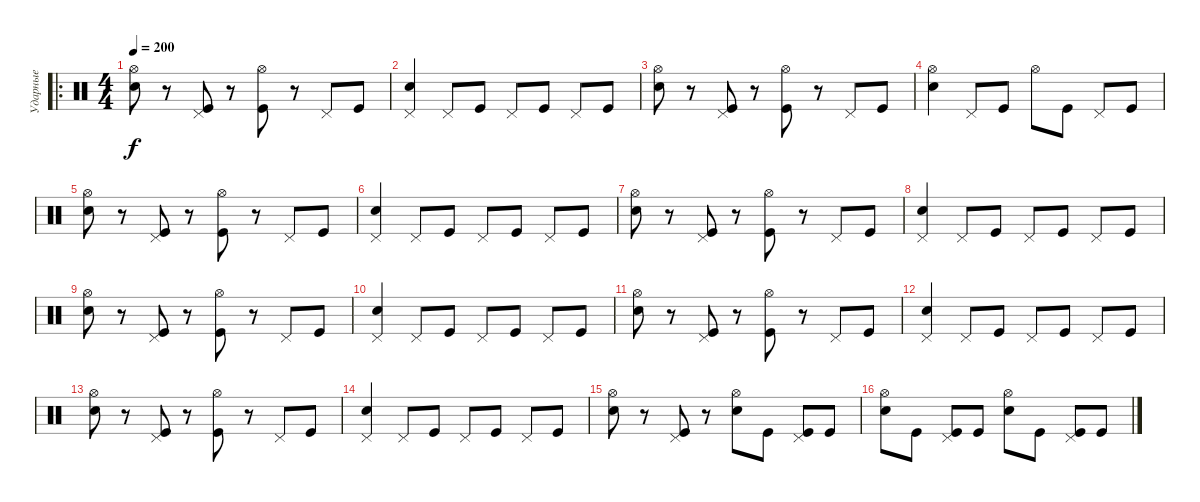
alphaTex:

\track ("Ударные" "Ударные") {instrument percussion}
\staff {score}
\articulation defaults
\ro
\ts (4 4)
\tempo 200
\clef neutral
\ks c
("Hi-Hat (open)" "Electric Snare (hit)").8{dy f} r.8 ("Pedal Hi-Hat (hit)" "Kick (hit)").8 r.8 ("Hi-Hat (open)" "Kick (hit)").8 r.8 "Pedal Hi-Hat (hit)".8 "Kick (hit)".8 |
("Pedal Hi-Hat (hit)" "Electric Snare (hit)").4 "Pedal Hi-Hat (hit)".8 "Kick (hit)".8 "Pedal Hi-Hat (hit)".8 "Kick (hit)".8 "Pedal Hi-Hat (hit)".8 "Kick (hit)".8 |
("Hi-Hat (open)" "Electric Snare (hit)").8 r.8 ("Pedal Hi-Hat (hit)" "Kick (hit)").8 r.8 ("Hi-Hat (open)" "Kick (hit)").8 r.8 "Pedal Hi-Hat (hit)".8 "Kick (hit)".8 |
("Hi-Hat (open)" "Electric Snare (hit)").4 "Pedal Hi-Hat (hit)".8 "Kick (hit)".8 "Hi-Hat (open)".8 "Kick (hit)".8 "Pedal Hi-Hat (hit)".8 "Kick (hit)".8 |
("Hi-Hat (open)" "Electric Snare (hit)").8 r.8 ("Pedal Hi-Hat (hit)" "Kick (hit)").8 r.8 ("Hi-Hat (open)" "Kick (hit)").8 r.8 "Pedal Hi-Hat (hit)".8 "Kick (hit)".8 |
("Pedal Hi-Hat (hit)" "Electric Snare (hit)").4 "Pedal Hi-Hat (hit)".8 "Kick (hit)".8 "Pedal Hi-Hat (hit)".8 "Kick (hit)".8 "Pedal Hi-Hat (hit)".8 "Kick (hit)".8 |
("Hi-Hat (open)" "Electric Snare (hit)").8 r.8 ("Pedal Hi-Hat (hit)" "Kick (hit)").8 r.8 ("Hi-Hat (open)" "Kick (hit)").8 r.8 "Pedal Hi-Hat (hit)".8 "Kick (hit)".8 |
("Pedal Hi-Hat (hit)" "Electric Snare (hit)").4 "Pedal Hi-Hat (hit)".8 "Kick (hit)".8 "Pedal Hi-Hat (hit)".8 "Kick (hit)".8 "Pedal Hi-Hat (hit)".8 "Kick (hit)".8 |
("Hi-Hat (open)" "Electric Snare (hit)").8 r.8 ("Pedal Hi-Hat (hit)" "Kick (hit)").8 r.8 ("Hi-Hat (open)" "Kick (hit)").8 r.8 "Pedal Hi-Hat (hit)".8 "Kick (hit)".8 |
("Pedal Hi-Hat (hit)" "Electric Snare (hit)").4 "Pedal Hi-Hat (hit)".8 "Kick (hit)".8 "Pedal Hi-Hat (hit)".8 "Kick (hit)".8 "Pedal Hi-Hat (hit)".8 "Kick (hit)".8 |
("Hi-Hat (open)" "Electric Snare (hit)").8 r.8 ("Pedal Hi-Hat (hit)" "Kick (hit)").8 r.8 ("Hi-Hat (open)" "Kick (hit)").8 r.8 "Pedal Hi-Hat (hit)".8 "Kick (hit)".8 |
("Pedal Hi-Hat (hit)" "Electric Snare (hit)").4 "Pedal Hi-Hat (hit)".8 "Kick (hit)".8 "Pedal Hi-Hat (hit)".8 "Kick (hit)".8 "Pedal Hi-Hat (hit)".8 "Kick (hit)".8 |
("Hi-Hat (open)" "Electric Snare (hit)").8 r.8 ("Pedal Hi-Hat (hit)" "Kick (hit)").8 r.8 ("Hi-Hat (open)" "Kick (hit)").8 r.8 "Pedal Hi-Hat (hit)".8 "Kick (hit)".8 |
("Pedal Hi-Hat (hit)" "Electric Snare (hit)").4 "Pedal Hi-Hat (hit)".8 "Kick (hit)".8 "Pedal Hi-Hat (hit)".8 "Kick (hit)".8 "Pedal Hi-Hat (hit)".8 "Kick (hit)".8 |
("Hi-Hat (open)" "Electric Snare (hit)").8 r.8 ("Pedal Hi-Hat (hit)" "Kick (hit)").8 r.8 ("Hi-Hat (open)" "Electric Snare (hit)").8 "Kick (hit)".8 ("Pedal Hi-Hat (hit)" "Kick (hit)").8 "Kick (hit)".8 |
("Hi-Hat (open)" "Electric Snare (hit)").8 "Kick (hit)".8 ("Pedal Hi-Hat (hit)" "Kick (hit)").8 "Kick (hit)".8 ("Hi-Hat (open)" "Electric Snare (hit)").8 "Kick (hit)".8 ("Pedal Hi-Hat (hit)" "Kick (hit)").8 "Kick (hit)".8
